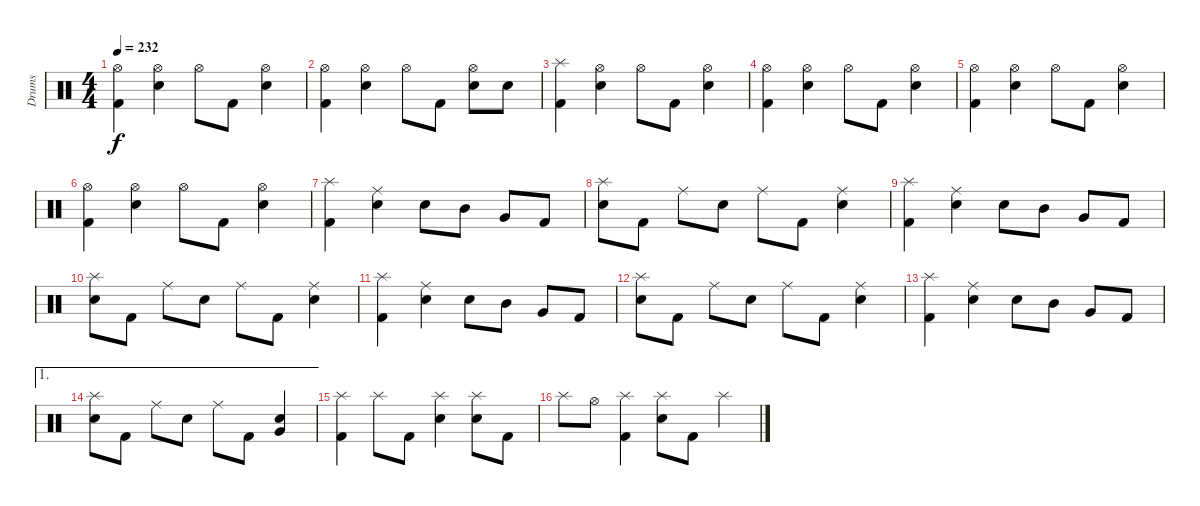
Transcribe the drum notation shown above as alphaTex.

\track ("Drums" "Drums") {instrument percussion}
\staff {score}
\articulation defaults
\ts (4 4)
\tempo 232
\clef neutral
\ks c
("Hi-Hat (open)" "Kick (hit) 2").4{dy f} ("Hi-Hat (open)" "Electric Snare (hit)").4 "Hi-Hat (open)".8 "Kick (hit) 2".8 ("Hi-Hat (open)" "Electric Snare (hit)").4 |
("Hi-Hat (open)" "Kick (hit) 2").4 ("Hi-Hat (open)" "Electric Snare (hit)").4 "Hi-Hat (open)".8 "Kick (hit) 2".8 ("Hi-Hat (open)" "Electric Snare (hit)").8 "Electric Snare (hit)".8 |
("Splash (hit)" "Kick (hit) 2").4 ("Hi-Hat (open)" "Electric Snare (hit)").4 "Hi-Hat (open)".8 "Kick (hit) 2".8 ("Hi-Hat (open)" "Electric Snare (hit)").4 |
("Hi-Hat (open)" "Kick (hit) 2").4 ("Hi-Hat (open)" "Electric Snare (hit)").4 "Hi-Hat (open)".8 "Kick (hit) 2".8 ("Hi-Hat (open)" "Electric Snare (hit)").4 |
("Hi-Hat (open)" "Kick (hit) 2").4 ("Hi-Hat (open)" "Electric Snare (hit)").4 "Hi-Hat (open)".8 "Kick (hit) 2".8 ("Hi-Hat (open)" "Electric Snare (hit)").4 |
("Hi-Hat (open)" "Kick (hit) 2").4 ("Hi-Hat (open)" "Electric Snare (hit)").4 "Hi-Hat (open)".8 "Kick (hit) 2".8 ("Hi-Hat (open)" "Electric Snare (hit)").4 |
("Splash (hit)" "Kick (hit) 2").4 ("Ride (middle)" "Electric Snare (hit)").4 "Electric Snare (hit)".8 "Mid Tom (hit)".8 "Very Low Tom (hit)".8 "Kick (hit) 2".8 |
("Splash (hit)" "Electric Snare (hit)").8 "Kick (hit) 2".8 "Ride (middle)".8 "Electric Snare (hit)".8 "Ride (middle)".8 "Kick (hit) 2".8 ("Ride (middle)" "Electric Snare (hit)").4 |
("Splash (hit)" "Kick (hit) 2").4 ("Ride (middle)" "Electric Snare (hit)").4 "Electric Snare (hit)".8 "Mid Tom (hit)".8 "Very Low Tom (hit)".8 "Kick (hit) 2".8 |
("Splash (hit)" "Electric Snare (hit)").8 "Kick (hit) 2".8 "Ride (middle)".8 "Electric Snare (hit)".8 "Ride (middle)".8 "Kick (hit) 2".8 ("Ride (middle)" "Electric Snare (hit)").4 |
("Splash (hit)" "Kick (hit) 2").4 ("Ride (middle)" "Electric Snare (hit)").4 "Electric Snare (hit)".8 "Mid Tom (hit)".8 "Very Low Tom (hit)".8 "Kick (hit) 2".8 |
("Splash (hit)" "Electric Snare (hit)").8 "Kick (hit) 2".8 "Ride (middle)".8 "Electric Snare (hit)".8 "Ride (middle)".8 "Kick (hit) 2".8 ("Ride (middle)" "Electric Snare (hit)").4 |
("Splash (hit)" "Kick (hit) 2").4 ("Ride (middle)" "Electric Snare (hit)").4 "Electric Snare (hit)".8 "Mid Tom (hit)".8 "Very Low Tom (hit)".8 "Kick (hit) 2".8 |
\ae 1
("Splash (hit)" "Electric Snare (hit)").8 "Kick (hit) 2".8 "Ride (middle)".8 "Electric Snare (hit)".8 "Ride (middle)".8 "Kick (hit) 2".8 ("Very Low Tom (hit)" "Electric Snare (hit)").4 |
("Splash (hit)" "Kick (hit) 2").4 "Splash (hit)".8 "Kick (hit) 2".8 ("Splash (hit)" "Electric Snare (hit)").4 ("Splash (hit)" "Electric Snare (hit)").8 "Kick (hit) 2".8 |
"Splash (hit)".8 "Hi-Hat (open)".8 ("Splash (hit)" "Kick (hit) 2").4 ("Splash (hit)" "Electric Snare (hit)").8 "Kick (hit) 2".8 "Splash (hit)".4
